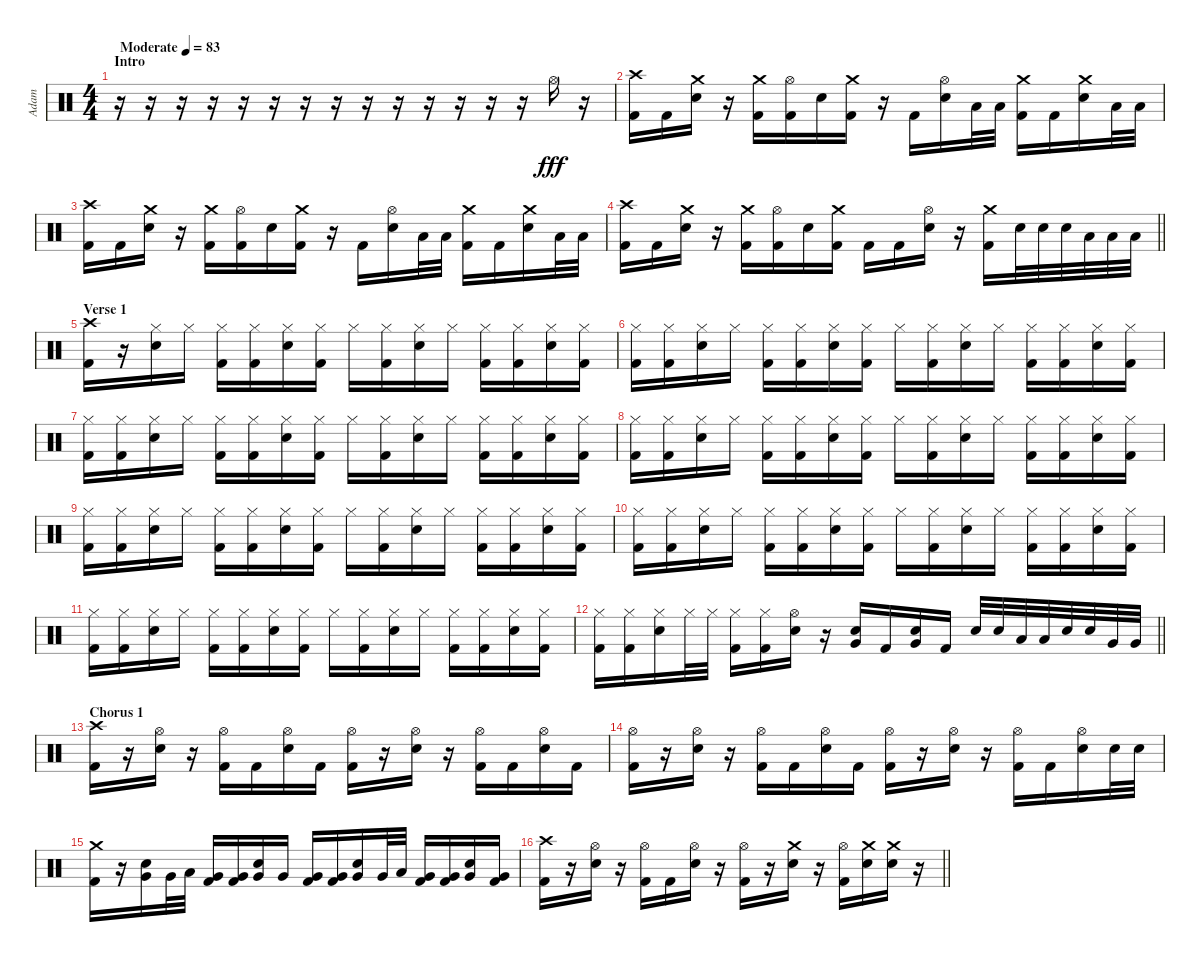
\track ("Adam" "Adam") {instrument percussion}
\staff {score}
\articulation defaults
\ts (4 4)
\section ("" "Intro")
\tempo (83 "Moderate")
\clef neutral
\ks c
r.16{dy fff} r.16 r.16 r.16 r.16 r.16 r.16 r.16 r.16 r.16 r.16 r.16 r.16 r.16 "Hi-Hat (open)".16 r.16 |
("Crash high (hit)" "Kick (hit) 2").16 "Kick (hit) 2".16 ("Crash medium (hit)" "Electric Snare (hit)").16 r.16 ("Crash medium (hit)" "Kick (hit) 2").16 ("Hi-Hat (open)" "Kick (hit) 2").16 "Electric Snare (hit)".16 ("Crash medium (hit)" "Kick (hit) 2").16 r.16 "Kick (hit) 2".16 ("Hi-Hat (open)" "Electric Snare (hit)").16 "Low Tom (hit)".32 "Low Tom (hit)".32 ("Crash medium (hit)" "Kick (hit) 2").16 "Kick (hit) 2".16 ("Crash medium (hit)" "Electric Snare (hit)").16 "Low Tom (hit)".32 "Low Tom (hit)".32 |
("Crash high (hit)" "Kick (hit) 2").16 "Kick (hit) 2".16 ("Crash medium (hit)" "Electric Snare (hit)").16 r.16 ("Crash medium (hit)" "Kick (hit) 2").16 ("Hi-Hat (open)" "Kick (hit) 2").16 "Electric Snare (hit)".16 ("Crash medium (hit)" "Kick (hit) 2").16 r.16 "Kick (hit) 2".16 ("Hi-Hat (open)" "Electric Snare (hit)").16 "Low Tom (hit)".32 "Low Tom (hit)".32 ("Crash medium (hit)" "Kick (hit) 2").16 "Kick (hit) 2".16 ("Crash medium (hit)" "Electric Snare (hit)").16 "Low Tom (hit)".32 "Low Tom (hit)".32 |
\barLineRight lightlight
("Crash high (hit)" "Kick (hit) 2").16 "Kick (hit) 2".16 ("Crash medium (hit)" "Electric Snare (hit)").16 r.16 ("Crash medium (hit)" "Kick (hit) 2").16 ("Hi-Hat (open)" "Kick (hit) 2").16 "Electric Snare (hit)".16 ("Crash medium (hit)" "Kick (hit) 2").16 "Kick (hit) 2".16 "Kick (hit) 2".16 ("Hi-Hat (open)" "Electric Snare (hit)").16 r.16 ("Crash medium (hit)" "Kick (hit) 2").16 "Electric Snare (hit)".32 "Electric Snare (hit)".32 "Electric Snare (hit)".32 "Low Tom (hit)".32 "Low Tom (hit)".32 "Low Tom (hit)".32 |
\section ("" "Verse 1")
("Crash high (hit)" "Kick (hit) 2").16 r.16 ("Hi-Hat (closed)" "Electric Snare (hit)").16 "Hi-Hat (closed)".16 ("Hi-Hat (closed)" "Kick (hit) 2").16 ("Hi-Hat (closed)" "Kick (hit) 2").16 ("Hi-Hat (closed)" "Electric Snare (hit)").16 ("Hi-Hat (closed)" "Kick (hit) 2").16 "Hi-Hat (closed)".16 ("Hi-Hat (closed)" "Kick (hit) 2").16 ("Hi-Hat (closed)" "Electric Snare (hit)").16 "Hi-Hat (closed)".16 ("Hi-Hat (closed)" "Kick (hit) 2").16 ("Hi-Hat (closed)" "Kick (hit) 2").16 ("Hi-Hat (closed)" "Electric Snare (hit)").16 ("Hi-Hat (closed)" "Kick (hit) 2").16 |
("Hi-Hat (closed)" "Kick (hit) 2").16 ("Hi-Hat (closed)" "Kick (hit) 2").16 ("Hi-Hat (closed)" "Electric Snare (hit)").16 "Hi-Hat (closed)".16 ("Hi-Hat (closed)" "Kick (hit) 2").16 ("Hi-Hat (closed)" "Kick (hit) 2").16 ("Hi-Hat (closed)" "Electric Snare (hit)").16 ("Hi-Hat (closed)" "Kick (hit) 2").16 "Hi-Hat (closed)".16 ("Hi-Hat (closed)" "Kick (hit) 2").16 ("Hi-Hat (closed)" "Electric Snare (hit)").16 "Hi-Hat (closed)".16 ("Hi-Hat (closed)" "Kick (hit) 2").16 ("Hi-Hat (closed)" "Kick (hit) 2").16 ("Hi-Hat (closed)" "Electric Snare (hit)").16 ("Hi-Hat (closed)" "Kick (hit) 2").16 |
("Hi-Hat (closed)" "Kick (hit) 2").16 ("Hi-Hat (closed)" "Kick (hit) 2").16 ("Hi-Hat (closed)" "Electric Snare (hit)").16 "Hi-Hat (closed)".16 ("Hi-Hat (closed)" "Kick (hit) 2").16 ("Hi-Hat (closed)" "Kick (hit) 2").16 ("Hi-Hat (closed)" "Electric Snare (hit)").16 ("Hi-Hat (closed)" "Kick (hit) 2").16 "Hi-Hat (closed)".16 ("Hi-Hat (closed)" "Kick (hit) 2").16 ("Hi-Hat (closed)" "Electric Snare (hit)").16 "Hi-Hat (closed)".16 ("Hi-Hat (closed)" "Kick (hit) 2").16 ("Hi-Hat (closed)" "Kick (hit) 2").16 ("Hi-Hat (closed)" "Electric Snare (hit)").16 ("Hi-Hat (closed)" "Kick (hit) 2").16 |
("Hi-Hat (closed)" "Kick (hit) 2").16 ("Hi-Hat (closed)" "Kick (hit) 2").16 ("Hi-Hat (closed)" "Electric Snare (hit)").16 "Hi-Hat (closed)".16 ("Hi-Hat (closed)" "Kick (hit) 2").16 ("Hi-Hat (closed)" "Kick (hit) 2").16 ("Hi-Hat (closed)" "Electric Snare (hit)").16 ("Hi-Hat (closed)" "Kick (hit) 2").16 "Hi-Hat (closed)".16 ("Hi-Hat (closed)" "Kick (hit) 2").16 ("Hi-Hat (closed)" "Electric Snare (hit)").16 "Hi-Hat (closed)".16 ("Hi-Hat (closed)" "Kick (hit) 2").16 ("Hi-Hat (closed)" "Kick (hit) 2").16 ("Hi-Hat (closed)" "Electric Snare (hit)").16 ("Hi-Hat (closed)" "Kick (hit) 2").16 |
("Hi-Hat (closed)" "Kick (hit) 2").16 ("Hi-Hat (closed)" "Kick (hit) 2").16 ("Hi-Hat (closed)" "Electric Snare (hit)").16 "Hi-Hat (closed)".16 ("Hi-Hat (closed)" "Kick (hit) 2").16 ("Hi-Hat (closed)" "Kick (hit) 2").16 ("Hi-Hat (closed)" "Electric Snare (hit)").16 ("Hi-Hat (closed)" "Kick (hit) 2").16 "Hi-Hat (closed)".16 ("Hi-Hat (closed)" "Kick (hit) 2").16 ("Hi-Hat (closed)" "Electric Snare (hit)").16 "Hi-Hat (closed)".16 ("Hi-Hat (closed)" "Kick (hit) 2").16 ("Hi-Hat (closed)" "Kick (hit) 2").16 ("Hi-Hat (closed)" "Electric Snare (hit)").16 ("Hi-Hat (closed)" "Kick (hit) 2").16 |
("Hi-Hat (closed)" "Kick (hit) 2").16 ("Hi-Hat (closed)" "Kick (hit) 2").16 ("Hi-Hat (closed)" "Electric Snare (hit)").16 "Hi-Hat (closed)".16 ("Hi-Hat (closed)" "Kick (hit) 2").16 ("Hi-Hat (closed)" "Kick (hit) 2").16 ("Hi-Hat (closed)" "Electric Snare (hit)").16 ("Hi-Hat (closed)" "Kick (hit) 2").16 "Hi-Hat (closed)".16 ("Hi-Hat (closed)" "Kick (hit) 2").16 ("Hi-Hat (closed)" "Electric Snare (hit)").16 "Hi-Hat (closed)".16 ("Hi-Hat (closed)" "Kick (hit) 2").16 ("Hi-Hat (closed)" "Kick (hit) 2").16 ("Hi-Hat (closed)" "Electric Snare (hit)").16 ("Hi-Hat (closed)" "Kick (hit) 2").16 |
("Hi-Hat (closed)" "Kick (hit) 2").16 ("Hi-Hat (closed)" "Kick (hit) 2").16 ("Hi-Hat (closed)" "Electric Snare (hit)").16 "Hi-Hat (closed)".16 ("Hi-Hat (closed)" "Kick (hit) 2").16 ("Hi-Hat (closed)" "Kick (hit) 2").16 ("Hi-Hat (closed)" "Electric Snare (hit)").16 ("Hi-Hat (closed)" "Kick (hit) 2").16 "Hi-Hat (closed)".16 ("Hi-Hat (closed)" "Kick (hit) 2").16 ("Hi-Hat (closed)" "Electric Snare (hit)").16 "Hi-Hat (closed)".16 ("Hi-Hat (closed)" "Kick (hit) 2").16 ("Hi-Hat (closed)" "Kick (hit) 2").16 ("Hi-Hat (closed)" "Electric Snare (hit)").16 ("Hi-Hat (closed)" "Kick (hit) 2").16 |
\barLineRight lightlight
("Hi-Hat (closed)" "Kick (hit) 2").16 ("Hi-Hat (closed)" "Kick (hit) 2").16 ("Hi-Hat (closed)" "Electric Snare (hit)").16 "Hi-Hat (closed)".32 "Hi-Hat (closed)".32 ("Hi-Hat (closed)" "Kick (hit) 2").16 ("Hi-Hat (closed)" "Kick (hit) 2").16 ("Hi-Hat (open)" "Electric Snare (hit)").16 r.16 ("Electric Snare (hit)" "Very Low Tom (hit)").16 "Kick (hit) 2".16 ("Electric Snare (hit)" "Very Low Tom (hit)").16 "Kick (hit) 2".16 "Electric Snare (hit)".32 "Electric Snare (hit)".32 "Low Tom (hit)".32 "Low Tom (hit)".32 "Electric Snare (hit)".32 "Electric Snare (hit)".32 "Very Low Tom (hit)".32 "Very Low Tom (hit)".32 |
\section ("" "Chorus 1")
("Crash high (hit)" "Kick (hit) 2").16 r.16 ("Hi-Hat (open)" "Electric Snare (hit)").16 r.16 ("Hi-Hat (open)" "Kick (hit) 2").16 "Kick (hit) 2".16 ("Hi-Hat (open)" "Electric Snare (hit)").16 "Kick (hit) 2".16 ("Hi-Hat (open)" "Kick (hit) 2").16 r.16 ("Hi-Hat (open)" "Electric Snare (hit)").16 r.16 ("Hi-Hat (open)" "Kick (hit) 2").16 "Kick (hit) 2".16 ("Hi-Hat (open)" "Electric Snare (hit)").16 "Kick (hit) 2".16 |
("Hi-Hat (open)" "Kick (hit) 2").16 r.16 ("Hi-Hat (open)" "Electric Snare (hit)").16 r.16 ("Hi-Hat (open)" "Kick (hit) 2").16 "Kick (hit) 2".16 ("Hi-Hat (open)" "Electric Snare (hit)").16 "Kick (hit) 2".16 ("Hi-Hat (open)" "Kick (hit) 2").16 r.16 ("Hi-Hat (open)" "Electric Snare (hit)").16 r.16 ("Hi-Hat (open)" "Kick (hit) 2").16 "Kick (hit) 2".16 ("Hi-Hat (open)" "Electric Snare (hit)").16 "Electric Snare (hit)".32 "Electric Snare (hit)".32 |
("Crash medium (hit)" "Kick (hit) 2").16 r.16 ("Electric Snare (hit)" "Very Low Tom (hit)").16 "Very Low Tom (hit)".32 "Low Tom (hit)".32 ("Very Low Tom (hit)" "Kick (hit) 2").16 ("Very Low Tom (hit)" "Kick (hit) 2").16 ("Electric Snare (hit)" "Very Low Tom (hit)").16 "Very Low Tom (hit)".16 ("Very Low Tom (hit)" "Kick (hit) 2").16 ("Very Low Tom (hit)" "Kick (hit) 2").16 ("Electric Snare (hit)" "Very Low Tom (hit)").16 "Very Low Tom (hit)".32 "Low Tom (hit)".32 ("Very Low Tom (hit)" "Kick (hit) 2").16 ("Very Low Tom (hit)" "Kick (hit) 2").16 ("Electric Snare (hit)" "Very Low Tom (hit)").16 ("Very Low Tom (hit)" "Kick (hit) 2").16 |
\barLineRight lightlight
("Crash high (hit)" "Kick (hit) 2").16 r.16 ("Hi-Hat (open)" "Electric Snare (hit)").16 r.16 ("Hi-Hat (open)" "Kick (hit) 2").16 "Kick (hit) 2".16 ("Hi-Hat (open)" "Electric Snare (hit)").16 r.16 ("Hi-Hat (open)" "Kick (hit) 2").16 r.16 ("Crash medium (hit)" "Electric Snare (hit)").16 r.16 ("Hi-Hat (open)" "Kick (hit) 2").16 ("Crash medium (hit)" "Electric Snare (hit)").16 ("Crash medium (hit)" "Electric Snare (hit)").16 r.16
